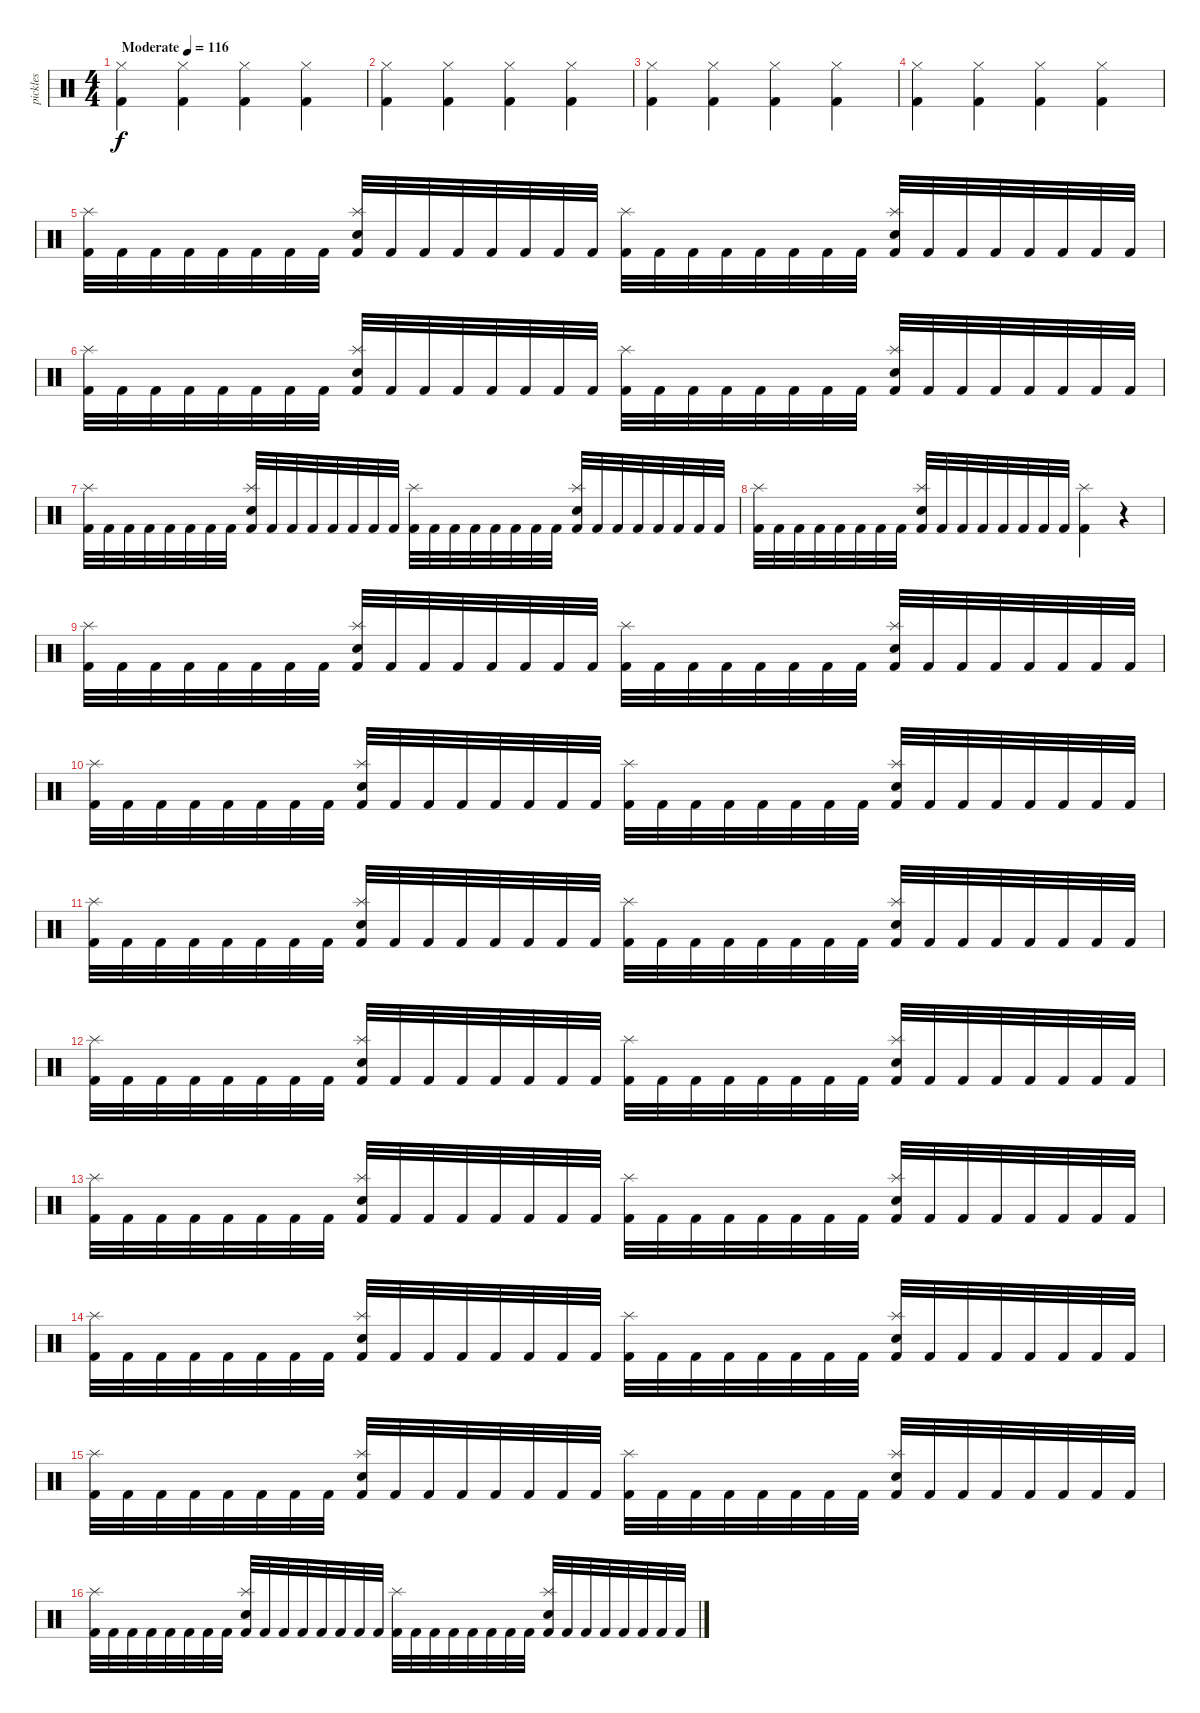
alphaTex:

\track ("pickles" "pickles") {instrument percussion}
\staff {score}
\articulation defaults
\ts (4 4)
\tempo (116 "Moderate")
\clef neutral
\ks c
("Hi-Hat (closed)" "Kick (hit) 2").4{dy f} ("Hi-Hat (closed)" "Kick (hit) 2").4 ("Hi-Hat (closed)" "Kick (hit) 2").4 ("Hi-Hat (closed)" "Kick (hit) 2").4 |
("Hi-Hat (closed)" "Kick (hit) 2").4 ("Hi-Hat (closed)" "Kick (hit) 2").4 ("Hi-Hat (closed)" "Kick (hit) 2").4 ("Hi-Hat (closed)" "Kick (hit) 2").4 |
("Hi-Hat (closed)" "Kick (hit) 2").4 ("Hi-Hat (closed)" "Kick (hit) 2").4 ("Hi-Hat (closed)" "Kick (hit) 2").4 ("Hi-Hat (closed)" "Kick (hit) 2").4 |
("Hi-Hat (closed)" "Kick (hit) 2").4 ("Hi-Hat (closed)" "Kick (hit) 2").4 ("Hi-Hat (closed)" "Kick (hit) 2").4 ("Hi-Hat (closed)" "Kick (hit) 2").4 |
("Splash (hit)" "Kick (hit) 2").32 "Kick (hit) 2".32 "Kick (hit) 2".32 "Kick (hit) 2".32 "Kick (hit) 2".32 "Kick (hit) 2".32 "Kick (hit) 2".32 "Kick (hit) 2".32 ("Splash (hit)" "Snare (hit) 2" "Kick (hit) 2").32 "Kick (hit) 2".32 "Kick (hit) 2".32 "Kick (hit) 2".32 "Kick (hit) 2".32 "Kick (hit) 2".32 "Kick (hit) 2".32 "Kick (hit) 2".32 ("Splash (hit)" "Kick (hit) 2").32 "Kick (hit) 2".32 "Kick (hit) 2".32 "Kick (hit) 2".32 "Kick (hit) 2".32 "Kick (hit) 2".32 "Kick (hit) 2".32 "Kick (hit) 2".32 ("Splash (hit)" "Snare (hit) 2" "Kick (hit) 2").32 "Kick (hit) 2".32 "Kick (hit) 2".32 "Kick (hit) 2".32 "Kick (hit) 2".32 "Kick (hit) 2".32 "Kick (hit) 2".32 "Kick (hit) 2".32 |
("Splash (hit)" "Kick (hit) 2").32 "Kick (hit) 2".32 "Kick (hit) 2".32 "Kick (hit) 2".32 "Kick (hit) 2".32 "Kick (hit) 2".32 "Kick (hit) 2".32 "Kick (hit) 2".32 ("Splash (hit)" "Snare (hit) 2" "Kick (hit) 2").32 "Kick (hit) 2".32 "Kick (hit) 2".32 "Kick (hit) 2".32 "Kick (hit) 2".32 "Kick (hit) 2".32 "Kick (hit) 2".32 "Kick (hit) 2".32 ("Splash (hit)" "Kick (hit) 2").32 "Kick (hit) 2".32 "Kick (hit) 2".32 "Kick (hit) 2".32 "Kick (hit) 2".32 "Kick (hit) 2".32 "Kick (hit) 2".32 "Kick (hit) 2".32 ("Splash (hit)" "Snare (hit) 2" "Kick (hit) 2").32 "Kick (hit) 2".32 "Kick (hit) 2".32 "Kick (hit) 2".32 "Kick (hit) 2".32 "Kick (hit) 2".32 "Kick (hit) 2".32 "Kick (hit) 2".32 |
("Splash (hit)" "Kick (hit) 2").32 "Kick (hit) 2".32 "Kick (hit) 2".32 "Kick (hit) 2".32 "Kick (hit) 2".32 "Kick (hit) 2".32 "Kick (hit) 2".32 "Kick (hit) 2".32 ("Splash (hit)" "Snare (hit) 2" "Kick (hit) 2").32 "Kick (hit) 2".32 "Kick (hit) 2".32 "Kick (hit) 2".32 "Kick (hit) 2".32 "Kick (hit) 2".32 "Kick (hit) 2".32 "Kick (hit) 2".32 ("Splash (hit)" "Kick (hit) 2").32 "Kick (hit) 2".32 "Kick (hit) 2".32 "Kick (hit) 2".32 "Kick (hit) 2".32 "Kick (hit) 2".32 "Kick (hit) 2".32 "Kick (hit) 2".32 ("Splash (hit)" "Snare (hit) 2" "Kick (hit) 2").32 "Kick (hit) 2".32 "Kick (hit) 2".32 "Kick (hit) 2".32 "Kick (hit) 2".32 "Kick (hit) 2".32 "Kick (hit) 2".32 "Kick (hit) 2".32 |
("Splash (hit)" "Kick (hit) 2").32 "Kick (hit) 2".32 "Kick (hit) 2".32 "Kick (hit) 2".32 "Kick (hit) 2".32 "Kick (hit) 2".32 "Kick (hit) 2".32 "Kick (hit) 2".32 ("Splash (hit)" "Snare (hit) 2" "Kick (hit) 2").32 "Kick (hit) 2".32 "Kick (hit) 2".32 "Kick (hit) 2".32 "Kick (hit) 2".32 "Kick (hit) 2".32 "Kick (hit) 2".32 "Kick (hit) 2".32 ("Splash (hit)" "Kick (hit) 2").4 r.4 |
("Splash (hit)" "Kick (hit) 2").32 "Kick (hit) 2".32 "Kick (hit) 2".32 "Kick (hit) 2".32 "Kick (hit) 2".32 "Kick (hit) 2".32 "Kick (hit) 2".32 "Kick (hit) 2".32 ("Splash (hit)" "Snare (hit) 2" "Kick (hit) 2").32 "Kick (hit) 2".32 "Kick (hit) 2".32 "Kick (hit) 2".32 "Kick (hit) 2".32 "Kick (hit) 2".32 "Kick (hit) 2".32 "Kick (hit) 2".32 ("Splash (hit)" "Kick (hit) 2").32 "Kick (hit) 2".32 "Kick (hit) 2".32 "Kick (hit) 2".32 "Kick (hit) 2".32 "Kick (hit) 2".32 "Kick (hit) 2".32 "Kick (hit) 2".32 ("Splash (hit)" "Snare (hit) 2" "Kick (hit) 2").32 "Kick (hit) 2".32 "Kick (hit) 2".32 "Kick (hit) 2".32 "Kick (hit) 2".32 "Kick (hit) 2".32 "Kick (hit) 2".32 "Kick (hit) 2".32 |
("Splash (hit)" "Kick (hit) 2").32 "Kick (hit) 2".32 "Kick (hit) 2".32 "Kick (hit) 2".32 "Kick (hit) 2".32 "Kick (hit) 2".32 "Kick (hit) 2".32 "Kick (hit) 2".32 ("Splash (hit)" "Snare (hit) 2" "Kick (hit) 2").32 "Kick (hit) 2".32 "Kick (hit) 2".32 "Kick (hit) 2".32 "Kick (hit) 2".32 "Kick (hit) 2".32 "Kick (hit) 2".32 "Kick (hit) 2".32 ("Splash (hit)" "Kick (hit) 2").32 "Kick (hit) 2".32 "Kick (hit) 2".32 "Kick (hit) 2".32 "Kick (hit) 2".32 "Kick (hit) 2".32 "Kick (hit) 2".32 "Kick (hit) 2".32 ("Splash (hit)" "Snare (hit) 2" "Kick (hit) 2").32 "Kick (hit) 2".32 "Kick (hit) 2".32 "Kick (hit) 2".32 "Kick (hit) 2".32 "Kick (hit) 2".32 "Kick (hit) 2".32 "Kick (hit) 2".32 |
("Splash (hit)" "Kick (hit) 2").32 "Kick (hit) 2".32 "Kick (hit) 2".32 "Kick (hit) 2".32 "Kick (hit) 2".32 "Kick (hit) 2".32 "Kick (hit) 2".32 "Kick (hit) 2".32 ("Splash (hit)" "Snare (hit) 2" "Kick (hit) 2").32 "Kick (hit) 2".32 "Kick (hit) 2".32 "Kick (hit) 2".32 "Kick (hit) 2".32 "Kick (hit) 2".32 "Kick (hit) 2".32 "Kick (hit) 2".32 ("Splash (hit)" "Kick (hit) 2").32 "Kick (hit) 2".32 "Kick (hit) 2".32 "Kick (hit) 2".32 "Kick (hit) 2".32 "Kick (hit) 2".32 "Kick (hit) 2".32 "Kick (hit) 2".32 ("Splash (hit)" "Snare (hit) 2" "Kick (hit) 2").32 "Kick (hit) 2".32 "Kick (hit) 2".32 "Kick (hit) 2".32 "Kick (hit) 2".32 "Kick (hit) 2".32 "Kick (hit) 2".32 "Kick (hit) 2".32 |
("Splash (hit)" "Kick (hit) 2").32 "Kick (hit) 2".32 "Kick (hit) 2".32 "Kick (hit) 2".32 "Kick (hit) 2".32 "Kick (hit) 2".32 "Kick (hit) 2".32 "Kick (hit) 2".32 ("Splash (hit)" "Snare (hit) 2" "Kick (hit) 2").32 "Kick (hit) 2".32 "Kick (hit) 2".32 "Kick (hit) 2".32 "Kick (hit) 2".32 "Kick (hit) 2".32 "Kick (hit) 2".32 "Kick (hit) 2".32 ("Splash (hit)" "Kick (hit) 2").32 "Kick (hit) 2".32 "Kick (hit) 2".32 "Kick (hit) 2".32 "Kick (hit) 2".32 "Kick (hit) 2".32 "Kick (hit) 2".32 "Kick (hit) 2".32 ("Splash (hit)" "Snare (hit) 2" "Kick (hit) 2").32 "Kick (hit) 2".32 "Kick (hit) 2".32 "Kick (hit) 2".32 "Kick (hit) 2".32 "Kick (hit) 2".32 "Kick (hit) 2".32 "Kick (hit) 2".32 |
("Splash (hit)" "Kick (hit) 2").32 "Kick (hit) 2".32 "Kick (hit) 2".32 "Kick (hit) 2".32 "Kick (hit) 2".32 "Kick (hit) 2".32 "Kick (hit) 2".32 "Kick (hit) 2".32 ("Splash (hit)" "Snare (hit) 2" "Kick (hit) 2").32 "Kick (hit) 2".32 "Kick (hit) 2".32 "Kick (hit) 2".32 "Kick (hit) 2".32 "Kick (hit) 2".32 "Kick (hit) 2".32 "Kick (hit) 2".32 ("Splash (hit)" "Kick (hit) 2").32 "Kick (hit) 2".32 "Kick (hit) 2".32 "Kick (hit) 2".32 "Kick (hit) 2".32 "Kick (hit) 2".32 "Kick (hit) 2".32 "Kick (hit) 2".32 ("Splash (hit)" "Snare (hit) 2" "Kick (hit) 2").32 "Kick (hit) 2".32 "Kick (hit) 2".32 "Kick (hit) 2".32 "Kick (hit) 2".32 "Kick (hit) 2".32 "Kick (hit) 2".32 "Kick (hit) 2".32 |
("Splash (hit)" "Kick (hit) 2").32 "Kick (hit) 2".32 "Kick (hit) 2".32 "Kick (hit) 2".32 "Kick (hit) 2".32 "Kick (hit) 2".32 "Kick (hit) 2".32 "Kick (hit) 2".32 ("Splash (hit)" "Snare (hit) 2" "Kick (hit) 2").32 "Kick (hit) 2".32 "Kick (hit) 2".32 "Kick (hit) 2".32 "Kick (hit) 2".32 "Kick (hit) 2".32 "Kick (hit) 2".32 "Kick (hit) 2".32 ("Splash (hit)" "Kick (hit) 2").32 "Kick (hit) 2".32 "Kick (hit) 2".32 "Kick (hit) 2".32 "Kick (hit) 2".32 "Kick (hit) 2".32 "Kick (hit) 2".32 "Kick (hit) 2".32 ("Splash (hit)" "Snare (hit) 2" "Kick (hit) 2").32 "Kick (hit) 2".32 "Kick (hit) 2".32 "Kick (hit) 2".32 "Kick (hit) 2".32 "Kick (hit) 2".32 "Kick (hit) 2".32 "Kick (hit) 2".32 |
("Splash (hit)" "Kick (hit) 2").32 "Kick (hit) 2".32 "Kick (hit) 2".32 "Kick (hit) 2".32 "Kick (hit) 2".32 "Kick (hit) 2".32 "Kick (hit) 2".32 "Kick (hit) 2".32 ("Splash (hit)" "Snare (hit) 2" "Kick (hit) 2").32 "Kick (hit) 2".32 "Kick (hit) 2".32 "Kick (hit) 2".32 "Kick (hit) 2".32 "Kick (hit) 2".32 "Kick (hit) 2".32 "Kick (hit) 2".32 ("Splash (hit)" "Kick (hit) 2").32 "Kick (hit) 2".32 "Kick (hit) 2".32 "Kick (hit) 2".32 "Kick (hit) 2".32 "Kick (hit) 2".32 "Kick (hit) 2".32 "Kick (hit) 2".32 ("Splash (hit)" "Snare (hit) 2" "Kick (hit) 2").32 "Kick (hit) 2".32 "Kick (hit) 2".32 "Kick (hit) 2".32 "Kick (hit) 2".32 "Kick (hit) 2".32 "Kick (hit) 2".32 "Kick (hit) 2".32 |
("Splash (hit)" "Kick (hit) 2").32 "Kick (hit) 2".32 "Kick (hit) 2".32 "Kick (hit) 2".32 "Kick (hit) 2".32 "Kick (hit) 2".32 "Kick (hit) 2".32 "Kick (hit) 2".32 ("Splash (hit)" "Snare (hit) 2" "Kick (hit) 2").32 "Kick (hit) 2".32 "Kick (hit) 2".32 "Kick (hit) 2".32 "Kick (hit) 2".32 "Kick (hit) 2".32 "Kick (hit) 2".32 "Kick (hit) 2".32 ("Splash (hit)" "Kick (hit) 2").32 "Kick (hit) 2".32 "Kick (hit) 2".32 "Kick (hit) 2".32 "Kick (hit) 2".32 "Kick (hit) 2".32 "Kick (hit) 2".32 "Kick (hit) 2".32 ("Splash (hit)" "Snare (hit) 2" "Kick (hit) 2").32 "Kick (hit) 2".32 "Kick (hit) 2".32 "Kick (hit) 2".32 "Kick (hit) 2".32 "Kick (hit) 2".32 "Kick (hit) 2".32 "Kick (hit) 2".32
